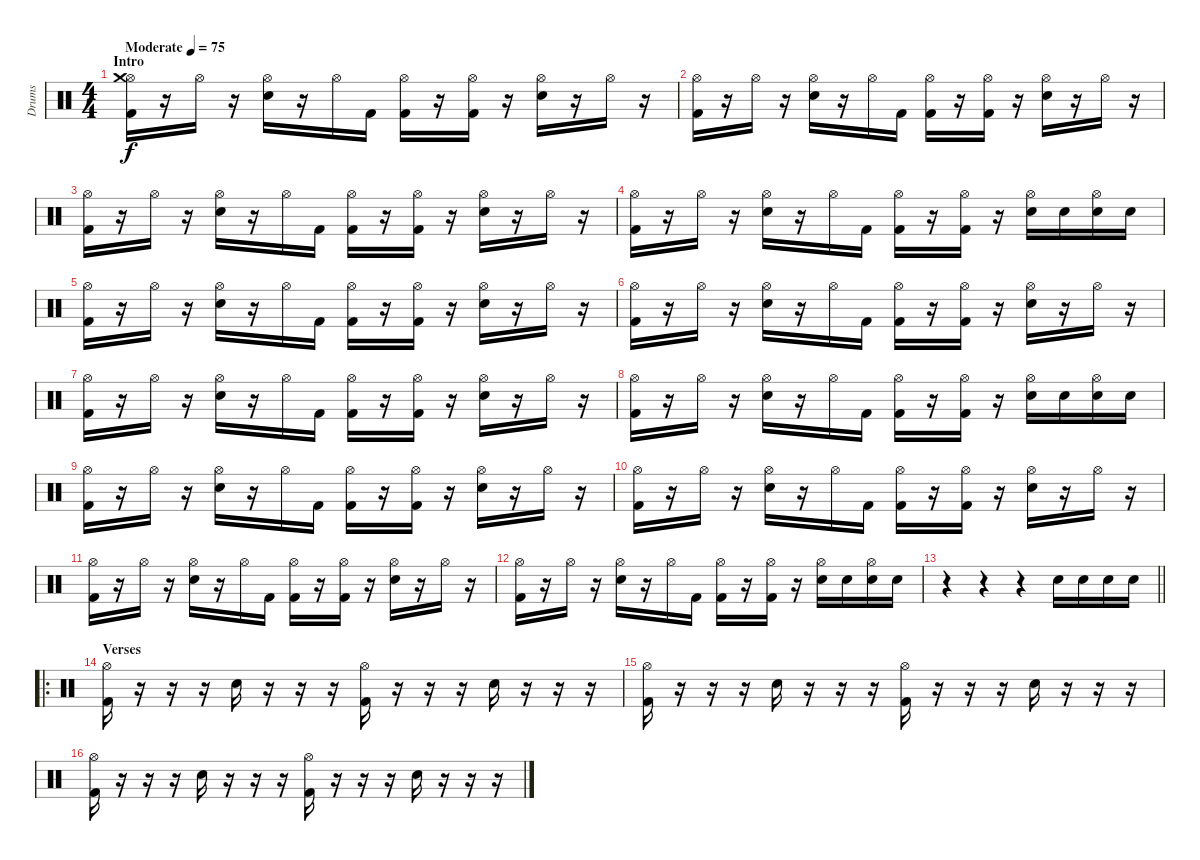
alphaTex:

\track ("Drums" "Drums") {instrument percussion}
\staff {score}
\articulation defaults
\ts (4 4)
\section ("" "Intro")
\tempo (75 "Moderate")
\clef neutral
\ks c
("Hi-Hat (open)" "Crash medium (hit)" "Kick (hit) 2").16{dy f} r.16 "Hi-Hat (open)".16 r.16 ("Hi-Hat (open)" "Electric Snare (hit)").16 r.16 "Hi-Hat (open)".16 "Kick (hit) 2".16 ("Hi-Hat (open)" "Kick (hit) 2").16 r.16 ("Hi-Hat (open)" "Kick (hit) 2").16 r.16 ("Hi-Hat (open)" "Electric Snare (hit)").16 r.16 "Hi-Hat (open)".16 r.16 |
("Hi-Hat (open)" "Kick (hit) 2").16 r.16 "Hi-Hat (open)".16 r.16 ("Hi-Hat (open)" "Electric Snare (hit)").16 r.16 "Hi-Hat (open)".16 "Kick (hit) 2".16 ("Hi-Hat (open)" "Kick (hit) 2").16 r.16 ("Hi-Hat (open)" "Kick (hit) 2").16 r.16 ("Hi-Hat (open)" "Electric Snare (hit)").16 r.16 "Hi-Hat (open)".16 r.16 |
("Hi-Hat (open)" "Kick (hit) 2").16 r.16 "Hi-Hat (open)".16 r.16 ("Hi-Hat (open)" "Electric Snare (hit)").16 r.16 "Hi-Hat (open)".16 "Kick (hit) 2".16 ("Hi-Hat (open)" "Kick (hit) 2").16 r.16 ("Hi-Hat (open)" "Kick (hit) 2").16 r.16 ("Hi-Hat (open)" "Electric Snare (hit)").16 r.16 "Hi-Hat (open)".16 r.16 |
("Hi-Hat (open)" "Kick (hit) 2").16 r.16 "Hi-Hat (open)".16 r.16 ("Hi-Hat (open)" "Electric Snare (hit)").16 r.16 "Hi-Hat (open)".16 "Kick (hit) 2".16 ("Hi-Hat (open)" "Kick (hit) 2").16 r.16 ("Hi-Hat (open)" "Kick (hit) 2").16 r.16 ("Hi-Hat (open)" "Electric Snare (hit)").16 "Electric Snare (hit)".16 ("Hi-Hat (open)" "Electric Snare (hit)").16 "Electric Snare (hit)".16 |
("Hi-Hat (open)" "Kick (hit) 2").16 r.16 "Hi-Hat (open)".16 r.16 ("Hi-Hat (open)" "Electric Snare (hit)").16 r.16 "Hi-Hat (open)".16 "Kick (hit) 2".16 ("Hi-Hat (open)" "Kick (hit) 2").16 r.16 ("Hi-Hat (open)" "Kick (hit) 2").16 r.16 ("Hi-Hat (open)" "Electric Snare (hit)").16 r.16 "Hi-Hat (open)".16 r.16 |
("Hi-Hat (open)" "Kick (hit) 2").16 r.16 "Hi-Hat (open)".16 r.16 ("Hi-Hat (open)" "Electric Snare (hit)").16 r.16 "Hi-Hat (open)".16 "Kick (hit) 2".16 ("Hi-Hat (open)" "Kick (hit) 2").16 r.16 ("Hi-Hat (open)" "Kick (hit) 2").16 r.16 ("Hi-Hat (open)" "Electric Snare (hit)").16 r.16 "Hi-Hat (open)".16 r.16 |
("Hi-Hat (open)" "Kick (hit) 2").16 r.16 "Hi-Hat (open)".16 r.16 ("Hi-Hat (open)" "Electric Snare (hit)").16 r.16 "Hi-Hat (open)".16 "Kick (hit) 2".16 ("Hi-Hat (open)" "Kick (hit) 2").16 r.16 ("Hi-Hat (open)" "Kick (hit) 2").16 r.16 ("Hi-Hat (open)" "Electric Snare (hit)").16 r.16 "Hi-Hat (open)".16 r.16 |
("Hi-Hat (open)" "Kick (hit) 2").16 r.16 "Hi-Hat (open)".16 r.16 ("Hi-Hat (open)" "Electric Snare (hit)").16 r.16 "Hi-Hat (open)".16 "Kick (hit) 2".16 ("Hi-Hat (open)" "Kick (hit) 2").16 r.16 ("Hi-Hat (open)" "Kick (hit) 2").16 r.16 ("Hi-Hat (open)" "Electric Snare (hit)").16 "Electric Snare (hit)".16 ("Hi-Hat (open)" "Electric Snare (hit)").16 "Electric Snare (hit)".16 |
("Hi-Hat (open)" "Kick (hit) 2").16 r.16 "Hi-Hat (open)".16 r.16 ("Hi-Hat (open)" "Electric Snare (hit)").16 r.16 "Hi-Hat (open)".16 "Kick (hit) 2".16 ("Hi-Hat (open)" "Kick (hit) 2").16 r.16 ("Hi-Hat (open)" "Kick (hit) 2").16 r.16 ("Hi-Hat (open)" "Electric Snare (hit)").16 r.16 "Hi-Hat (open)".16 r.16 |
("Hi-Hat (open)" "Kick (hit) 2").16 r.16 "Hi-Hat (open)".16 r.16 ("Hi-Hat (open)" "Electric Snare (hit)").16 r.16 "Hi-Hat (open)".16 "Kick (hit) 2".16 ("Hi-Hat (open)" "Kick (hit) 2").16 r.16 ("Hi-Hat (open)" "Kick (hit) 2").16 r.16 ("Hi-Hat (open)" "Electric Snare (hit)").16 r.16 "Hi-Hat (open)".16 r.16 |
("Hi-Hat (open)" "Kick (hit) 2").16 r.16 "Hi-Hat (open)".16 r.16 ("Hi-Hat (open)" "Electric Snare (hit)").16 r.16 "Hi-Hat (open)".16 "Kick (hit) 2".16 ("Hi-Hat (open)" "Kick (hit) 2").16 r.16 ("Hi-Hat (open)" "Kick (hit) 2").16 r.16 ("Hi-Hat (open)" "Electric Snare (hit)").16 r.16 "Hi-Hat (open)".16 r.16 |
("Hi-Hat (open)" "Kick (hit) 2").16 r.16 "Hi-Hat (open)".16 r.16 ("Hi-Hat (open)" "Electric Snare (hit)").16 r.16 "Hi-Hat (open)".16 "Kick (hit) 2".16 ("Hi-Hat (open)" "Kick (hit) 2").16 r.16 ("Hi-Hat (open)" "Kick (hit) 2").16 r.16 ("Hi-Hat (open)" "Electric Snare (hit)").16 "Electric Snare (hit)".16 ("Hi-Hat (open)" "Electric Snare (hit)").16 "Electric Snare (hit)".16 |
\barLineRight lightlight
r.4 r.4 r.4 "Electric Snare (hit)".16 "Electric Snare (hit)".16 "Electric Snare (hit)".16 "Electric Snare (hit)".16 |
\ro
\section ("" "Verses")
("Hi-Hat (open)" "Kick (hit) 2").16 r.16 r.16 r.16 "Electric Snare (hit)".16 r.16 r.16 r.16 ("Hi-Hat (open)" "Kick (hit) 2").16 r.16 r.16 r.16 "Electric Snare (hit)".16 r.16 r.16 r.16 |
("Hi-Hat (open)" "Kick (hit) 2").16 r.16 r.16 r.16 "Electric Snare (hit)".16 r.16 r.16 r.16 ("Hi-Hat (open)" "Kick (hit) 2").16 r.16 r.16 r.16 "Electric Snare (hit)".16 r.16 r.16 r.16 |
("Hi-Hat (open)" "Kick (hit) 2").16 r.16 r.16 r.16 "Electric Snare (hit)".16 r.16 r.16 r.16 ("Hi-Hat (open)" "Kick (hit) 2").16 r.16 r.16 r.16 "Electric Snare (hit)".16 r.16 r.16 r.16
